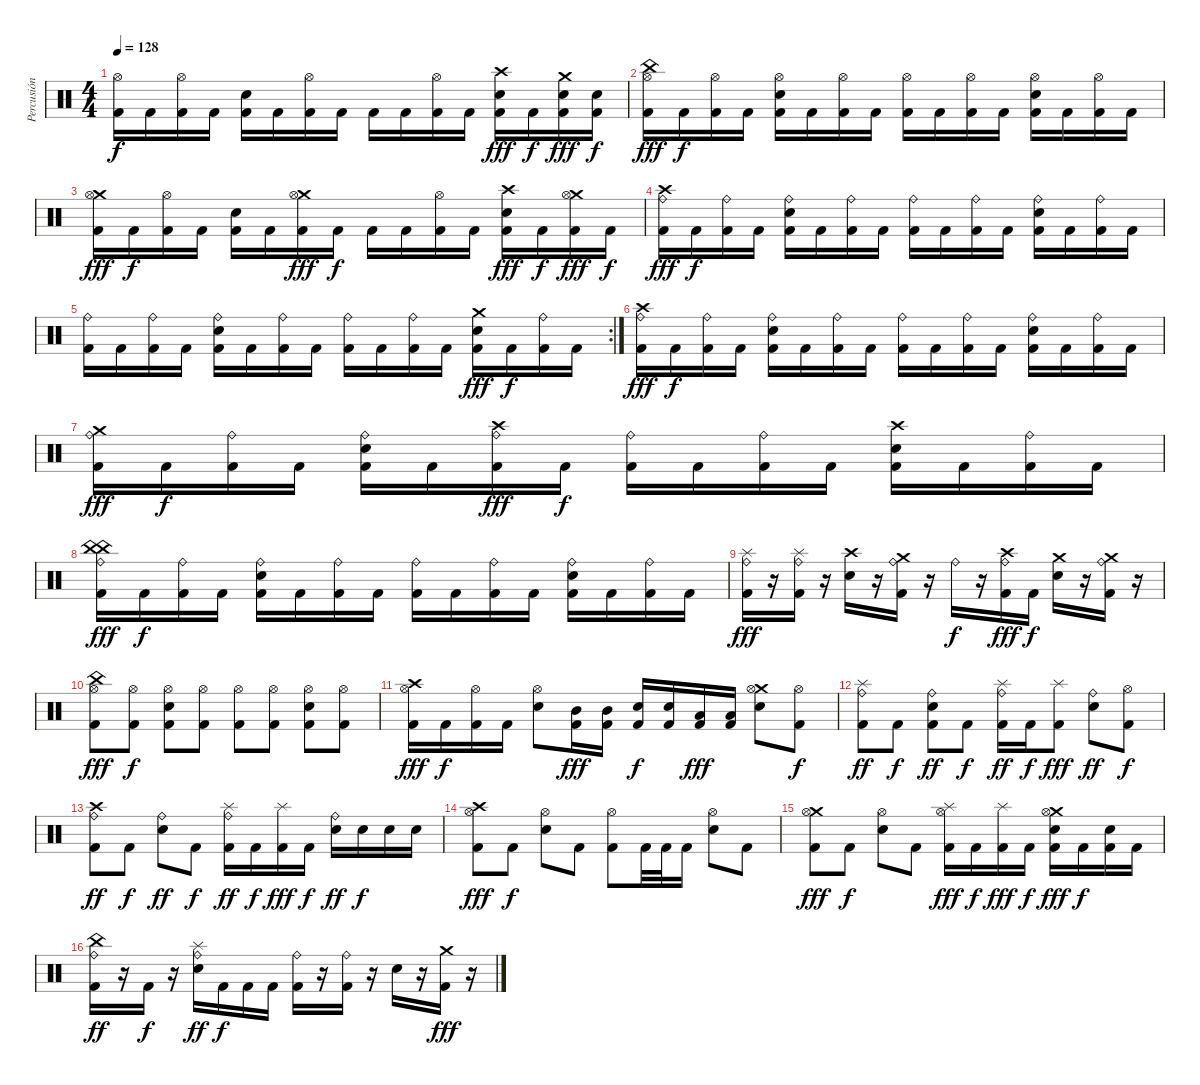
\track ("Percusión" "Percusión") {instrument percussion}
\staff {score}
\articulation defaults
\ts (4 4)
\tempo 128
\clef neutral
\ks c
("Hi-Hat (open)" "Kick (hit) 2").16{dy f} "Kick (hit) 2".16 ("Hi-Hat (open)" "Kick (hit) 2").16 "Kick (hit) 2".16 ("Kick (hit) 2" "Snare (hit) 2").16 "Kick (hit) 2".16 ("Hi-Hat (open)" "Kick (hit) 2").16 "Kick (hit) 2".16 "Kick (hit) 2".16 "Kick (hit) 2".16 ("Hi-Hat (open)" "Kick (hit) 2").16 "Kick (hit) 2".16 ("Crash high (hit)" "Kick (hit) 2" "Snare (hit) 2").16{dy fff} "Kick (hit) 2".16{dy f} ("Crash medium (hit)" "Kick (hit) 2" "Snare (hit) 2").16{dy fff} ("Kick (hit) 2" "Snare (hit) 2").16{dy f} |
("China (hit)" "Hi-Hat (open)" "Kick (hit) 2").16{dy fff} "Kick (hit) 2".16{dy f} ("Hi-Hat (open)" "Kick (hit) 2").16 "Kick (hit) 2".16 ("Hi-Hat (open)" "Kick (hit) 2" "Snare (hit) 2").16 "Kick (hit) 2".16 ("Hi-Hat (open)" "Kick (hit) 2").16 "Kick (hit) 2".16 ("Hi-Hat (open)" "Kick (hit) 2").16 "Kick (hit) 2".16 ("Hi-Hat (open)" "Kick (hit) 2").16 "Kick (hit) 2".16 ("Hi-Hat (open)" "Kick (hit) 2" "Snare (hit) 2").16 "Kick (hit) 2".16 ("Hi-Hat (open)" "Kick (hit) 2").16 "Kick (hit) 2".16 |
("Crash medium (hit)" "Hi-Hat (open)" "Kick (hit) 2").16{dy fff} "Kick (hit) 2".16{dy f} ("Hi-Hat (open)" "Kick (hit) 2").16 "Kick (hit) 2".16 ("Kick (hit) 2" "Snare (hit) 2").16 "Kick (hit) 2".16 ("Crash medium (hit)" "Hi-Hat (open)" "Kick (hit) 2").16{dy fff} "Kick (hit) 2".16{dy f} "Kick (hit) 2".16 "Kick (hit) 2".16 ("Hi-Hat (open)" "Kick (hit) 2").16 "Kick (hit) 2".16 ("Crash high (hit)" "Kick (hit) 2" "Snare (hit) 2").16{dy fff} "Kick (hit) 2".16{dy f} ("Crash medium (hit)" "Hi-Hat (open)" "Kick (hit) 2").16{dy fff} "Kick (hit) 2".16{dy f} |
("Crash high (hit)" "Ride (bell)" "Kick (hit) 2").16{dy fff} "Kick (hit) 2".16{dy f} ("Ride (bell)" "Kick (hit) 2").16 "Kick (hit) 2".16 ("Ride (bell)" "Kick (hit) 2" "Snare (hit) 2").16 "Kick (hit) 2".16 ("Ride (bell)" "Kick (hit) 2").16 "Kick (hit) 2".16 ("Ride (bell)" "Kick (hit) 2").16 "Kick (hit) 2".16 ("Ride (bell)" "Kick (hit) 2").16 "Kick (hit) 2".16 ("Ride (bell)" "Kick (hit) 2" "Snare (hit) 2").16 "Kick (hit) 2".16 ("Ride (bell)" "Kick (hit) 2").16 "Kick (hit) 2".16 |
\rc 2
("Ride (bell)" "Kick (hit) 2").16 "Kick (hit) 2".16 ("Ride (bell)" "Kick (hit) 2").16 "Kick (hit) 2".16 ("Ride (bell)" "Kick (hit) 2" "Snare (hit) 2").16 "Kick (hit) 2".16 ("Ride (bell)" "Kick (hit) 2").16 "Kick (hit) 2".16 ("Ride (bell)" "Kick (hit) 2").16 "Kick (hit) 2".16 ("Ride (bell)" "Kick (hit) 2").16 "Kick (hit) 2".16 ("Crash medium (hit)" "Kick (hit) 2" "Snare (hit) 2").16{dy fff} "Kick (hit) 2".16{dy f} ("Ride (bell)" "Kick (hit) 2").16 "Kick (hit) 2".16 |
("Crash high (hit)" "Ride (bell)" "Kick (hit) 2").16{dy fff} "Kick (hit) 2".16{dy f} ("Ride (bell)" "Kick (hit) 2").16 "Kick (hit) 2".16 ("Ride (bell)" "Kick (hit) 2" "Snare (hit) 2").16 "Kick (hit) 2".16 ("Ride (bell)" "Kick (hit) 2").16 "Kick (hit) 2".16 ("Ride (bell)" "Kick (hit) 2").16 "Kick (hit) 2".16 ("Ride (bell)" "Kick (hit) 2").16 "Kick (hit) 2".16 ("Ride (bell)" "Kick (hit) 2" "Snare (hit) 2").16 "Kick (hit) 2".16 ("Ride (bell)" "Kick (hit) 2").16 "Kick (hit) 2".16 |
("Crash medium (hit)" "Ride (bell)" "Kick (hit) 2").16{dy fff} "Kick (hit) 2".16{dy f} ("Ride (bell)" "Kick (hit) 2").16 "Kick (hit) 2".16 ("Ride (bell)" "Kick (hit) 2" "Snare (hit) 2").16 "Kick (hit) 2".16 ("Crash high (hit)" "Ride (bell)" "Kick (hit) 2").16{dy fff} "Kick (hit) 2".16{dy f} ("Ride (bell)" "Kick (hit) 2").16 "Kick (hit) 2".16 ("Ride (bell)" "Kick (hit) 2").16 "Kick (hit) 2".16 ("Crash high (hit)" "Kick (hit) 2" "Snare (hit) 2").16 "Kick (hit) 2".16 ("Ride (bell)" "Kick (hit) 2").16 "Kick (hit) 2".16 |
("China (hit)" "Ride (bell)" "Kick (hit) 2" "China (hit)").16{dy fff} "Kick (hit) 2".16{dy f} ("Ride (bell)" "Kick (hit) 2").16 "Kick (hit) 2".16 ("Ride (bell)" "Kick (hit) 2" "Snare (hit) 2").16 "Kick (hit) 2".16 ("Ride (bell)" "Kick (hit) 2").16 "Kick (hit) 2".16 ("Ride (bell)" "Kick (hit) 2").16 "Kick (hit) 2".16 ("Ride (bell)" "Kick (hit) 2").16 "Kick (hit) 2".16 ("Ride (bell)" "Kick (hit) 2" "Snare (hit) 2").16 "Kick (hit) 2".16 ("Ride (bell)" "Kick (hit) 2").16 "Kick (hit) 2".16 |
("Splash (hit)" "Ride (bell)" "Kick (hit) 2").16{dy fff} r.16 ("Splash (hit)" "Ride (bell)" "Kick (hit) 2").16 r.16 ("Crash high (hit)" "Snare (hit) 2").16 r.16 ("Crash medium (hit)" "Ride (bell)" "Kick (hit) 2").16 r.16 "Ride (bell)".16{dy f} r.16 ("Crash high (hit)" "Ride (bell)" "Kick (hit) 2").16{dy fff} "Kick (hit) 2".16{dy f} ("Crash medium (hit)" "Snare (hit) 2").16 r.16 ("Crash medium (hit)" "Ride (bell)" "Kick (hit) 2").16 r.16 |
("China (hit)" "Hi-Hat (open)" "Kick (hit) 2").8{dy fff} ("Hi-Hat (open)" "Kick (hit) 2").8{dy f} ("Hi-Hat (open)" "Kick (hit) 2" "Snare (hit) 2").8 ("Hi-Hat (open)" "Kick (hit) 2").8 ("Hi-Hat (open)" "Kick (hit) 2").8 ("Hi-Hat (open)" "Kick (hit) 2").8 ("Hi-Hat (open)" "Kick (hit) 2" "Snare (hit) 2").8 ("Hi-Hat (open)" "Kick (hit) 2").8 |
("Crash high (hit)" "Hi-Hat (open)" "Kick (hit) 2").16{dy fff} "Kick (hit) 2".16{dy f} ("Hi-Hat (open)" "Kick (hit) 2").16 "Kick (hit) 2".16 ("Hi-Hat (open)" "Snare (hit) 2").8 ("Kick (hit) 2" "Mid Tom (hit)").16{dy fff} ("Kick (hit) 2" "Mid Tom (hit)").16 ("Kick (hit) 2" "Snare (hit) 2").16{dy f} ("Kick (hit) 2" "Snare (hit) 2").16 ("Kick (hit) 2" "Low Tom (hit)").16{dy fff} ("Kick (hit) 2" "Low Tom (hit)").16 ("Crash medium (hit)" "Hi-Hat (open)" "Snare (hit) 2").8 ("Hi-Hat (open)" "Kick (hit) 2").8{dy f} |
("Splash (hit)" "Ride (bell)" "Kick (hit) 2").8{dy ff} "Kick (hit) 2".8{dy f} ("Ride (bell)" "Kick (hit) 2" "Snare (hit) 2").8{dy ff} "Kick (hit) 2".8{dy f} ("Splash (hit)" "Ride (bell)" "Kick (hit) 2").16{dy ff} "Kick (hit) 2".16{dy f} ("Splash (hit)" "Kick (hit) 2").8{dy fff} ("Ride (bell)" "Snare (hit) 2").8{dy ff} ("Hi-Hat (open)" "Kick (hit) 2").8{dy f} |
("Crash high (hit)" "Ride (bell)" "Kick (hit) 2").8{dy ff} "Kick (hit) 2".8{dy f} ("Ride (bell)" "Snare (hit) 2").8{dy ff} "Kick (hit) 2".8{dy f} ("Splash (hit)" "Ride (bell)" "Kick (hit) 2").16{dy ff} "Kick (hit) 2".16{dy f} ("Splash (hit)" "Kick (hit) 2").16{dy fff} "Kick (hit) 2".16{dy f} ("Ride (bell)" "Snare (hit) 2").16{dy ff} "Snare (hit) 2".16{dy f} "Snare (hit) 2".16 "Snare (hit) 2".16 |
("Crash high (hit)" "Hi-Hat (open)" "Kick (hit) 2").8{dy fff} "Kick (hit) 2".8{dy f} ("Hi-Hat (open)" "Snare (hit) 2").8 "Kick (hit) 2".8 ("Hi-Hat (open)" "Kick (hit) 2").8 "Kick (hit) 2".32 "Kick (hit) 2".32 "Kick (hit) 2".16 ("Hi-Hat (open)" "Snare (hit) 2").8 "Kick (hit) 2".8 |
("Crash medium (hit)" "Hi-Hat (open)" "Kick (hit) 2").8{dy fff} "Kick (hit) 2".8{dy f} ("Hi-Hat (open)" "Snare (hit) 2").8 "Kick (hit) 2".8 ("Splash (hit)" "Hi-Hat (open)" "Kick (hit) 2").16{dy fff} "Kick (hit) 2".16{dy f} ("Splash (hit)" "Kick (hit) 2").16{dy fff} "Kick (hit) 2".16{dy f} ("Crash medium (hit)" "Hi-Hat (open)" "Kick (hit) 2" "Snare (hit) 2").16{dy fff} "Kick (hit) 2".16{dy f} ("Kick (hit) 2" "Snare (hit) 2").16 "Kick (hit) 2".16 |
("China (hit)" "Ride (bell)" "Kick (hit) 2").16{dy ff} r.16 "Kick (hit) 2".16{dy f} r.16 ("Splash (hit)" "Ride (bell)" "Snare (hit) 2").16{dy ff} "Kick (hit) 2".16{dy f} "Kick (hit) 2".16 "Kick (hit) 2".16 ("Ride (bell)" "Kick (hit) 2").16 r.16 ("Ride (bell)" "Kick (hit) 2").16 r.16 "Snare (hit) 2".16 r.16 ("Crash medium (hit)" "Kick (hit) 2").16{dy fff} r.16
